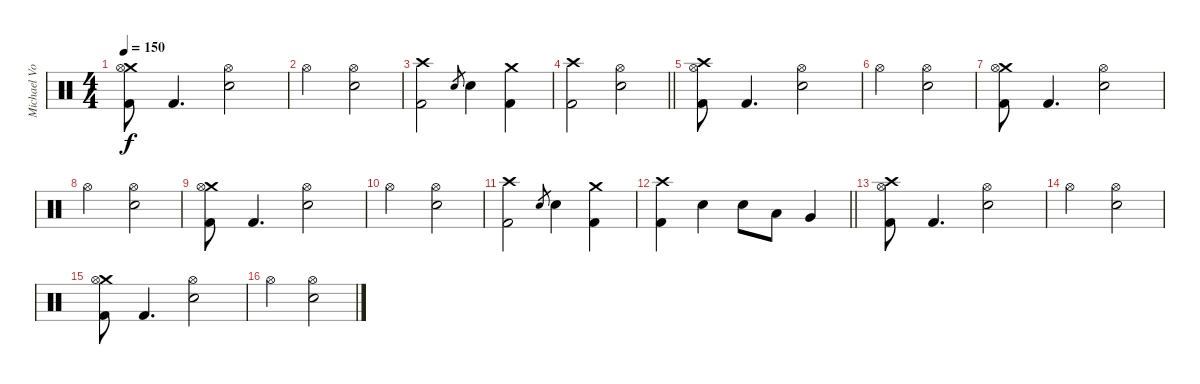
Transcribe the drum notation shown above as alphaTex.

\track ("Michael Von Knorring" "Michael Vo") {instrument percussion}
\staff {score}
\articulation defaults
\ts (4 4)
\tempo 150
\clef neutral
\ks c
("Crash medium (hit)" "Hi-Hat (open)" "Kick (hit) 2").8{dy f} "Kick (hit) 2".4{d} ("Hi-Hat (open)" "Snare (hit) 2").2 |
"Hi-Hat (open)".2 ("Hi-Hat (open)" "Snare (hit) 2").2 |
("Crash high (hit)" "Kick (hit) 2").2 "Snare (hit) 2".8{gr} "Snare (hit) 2".4 ("Crash medium (hit)" "Kick (hit) 2").4 |
\barLineRight lightlight
("Crash high (hit)" "Kick (hit) 2").2 ("Hi-Hat (open)" "Snare (hit) 2").2 |
("Crash high (hit)" "Hi-Hat (open)" "Kick (hit) 2").8 "Kick (hit) 2".4{d} ("Hi-Hat (open)" "Snare (hit) 2").2 |
"Hi-Hat (open)".2 ("Hi-Hat (open)" "Snare (hit) 2").2 |
("Crash medium (hit)" "Hi-Hat (open)" "Kick (hit) 2").8 "Kick (hit) 2".4{d} ("Hi-Hat (open)" "Snare (hit) 2").2 |
"Hi-Hat (open)".2 ("Hi-Hat (open)" "Snare (hit) 2").2 |
("Crash medium (hit)" "Hi-Hat (open)" "Kick (hit) 2").8 "Kick (hit) 2".4{d} ("Hi-Hat (open)" "Snare (hit) 2").2 |
"Hi-Hat (open)".2 ("Hi-Hat (open)" "Snare (hit) 2").2 |
("Crash high (hit)" "Kick (hit) 2").2 "Snare (hit) 2".8{gr} "Snare (hit) 2".4 ("Crash medium (hit)" "Kick (hit) 2").4 |
\barLineRight lightlight
("Crash high (hit)" "Kick (hit) 2").4 "Snare (hit) 2".4 "Snare (hit) 2".8 "Low Tom (hit)".8 "Very Low Tom (hit)".4 |
("Crash high (hit)" "Hi-Hat (open)" "Kick (hit) 2").8 "Kick (hit) 2".4{d} ("Hi-Hat (open)" "Snare (hit) 2").2 |
"Hi-Hat (open)".2 ("Hi-Hat (open)" "Snare (hit) 2").2 |
("Crash medium (hit)" "Hi-Hat (open)" "Kick (hit) 2").8 "Kick (hit) 2".4{d} ("Hi-Hat (open)" "Snare (hit) 2").2 |
"Hi-Hat (open)".2 ("Hi-Hat (open)" "Snare (hit) 2").2
